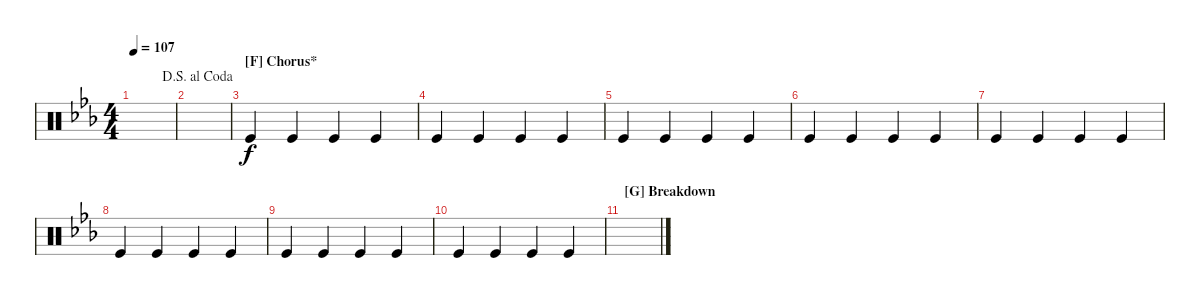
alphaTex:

\defaultSystemsLayout 4
\bracketExtendMode groupsimilarinstruments
\singleTrackTrackNamePolicy hidden
\firstSystemTrackNameOrientation horizontal
\otherSystemsTrackNameOrientation horizontal
\chordDiagramsInScore
\track ("Tambourine" "Tamb.") {instrument percussion}
\staff {score}
\articulation defaults
\ts (4 4)
\tempo 107
\clef neutral
\ks cminor
|
\jump dalsegnoalcoda
|
\section ("F" "Chorus*")
"Kick (hit)".4 "Kick (hit)".4 "Kick (hit)".4 "Kick (hit)".4 |
"Kick (hit)".4 "Kick (hit)".4 "Kick (hit)".4 "Kick (hit)".4 |
"Kick (hit)".4 "Kick (hit)".4 "Kick (hit)".4 "Kick (hit)".4 |
"Kick (hit)".4 "Kick (hit)".4 "Kick (hit)".4 "Kick (hit)".4 |
"Kick (hit)".4 "Kick (hit)".4 "Kick (hit)".4 "Kick (hit)".4 |
"Kick (hit)".4 "Kick (hit)".4 "Kick (hit)".4 "Kick (hit)".4 |
"Kick (hit)".4 "Kick (hit)".4 "Kick (hit)".4 "Kick (hit)".4 |
"Kick (hit)".4 "Kick (hit)".4 "Kick (hit)".4 "Kick (hit)".4 |
\section ("G" "Breakdown")
